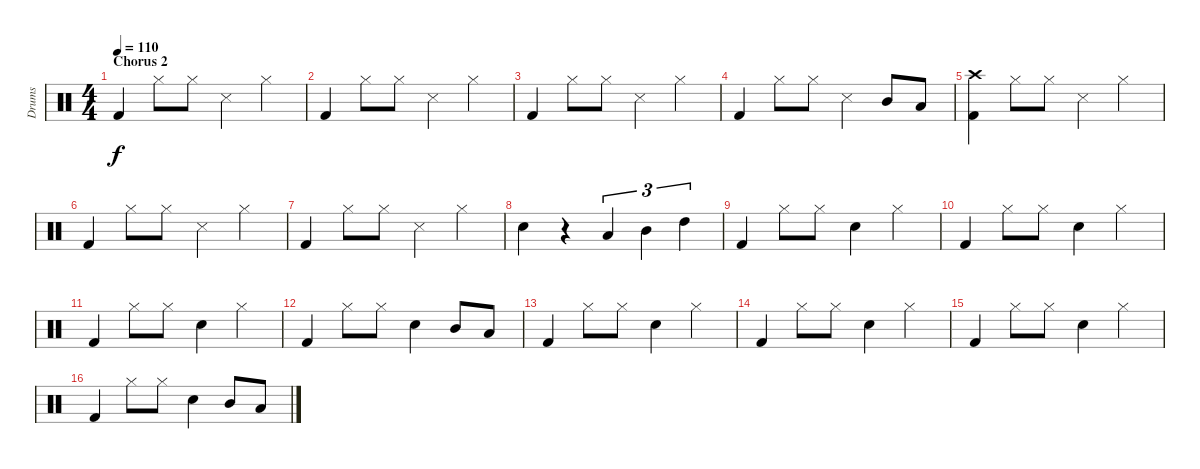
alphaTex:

\track ("Drums" "Drums") {instrument percussion}
\staff {score}
\articulation defaults
\ts (4 4)
\section ("" "Chorus 2")
\tempo 110
\clef neutral
\ks c "Kick (hit) 2".4{dy f} "Hi-Hat (closed)".8 "Hi-Hat (closed)".8 "Snare (side stick) 3".4 "Hi-Hat (closed)".4
|
"Kick (hit) 2".4 "Hi-Hat (closed)".8 "Hi-Hat (closed)".8 "Snare (side stick) 3".4 "Hi-Hat (closed)".4 |
"Kick (hit) 2".4 "Hi-Hat (closed)".8 "Hi-Hat (closed)".8 "Snare (side stick) 3".4 "Hi-Hat (closed)".4 |
"Kick (hit) 2".4 "Hi-Hat (closed)".8 "Hi-Hat (closed)".8 "Snare (side stick) 3".4 "Mid Tom (hit)".8 "Low Tom (hit)".8 |
("Kick (hit) 2" "Crash high (hit)").4 "Hi-Hat (closed)".8 "Hi-Hat (closed)".8 "Snare (side stick) 3".4 "Hi-Hat (closed)".4 |
"Kick (hit) 2".4 "Hi-Hat (closed)".8 "Hi-Hat (closed)".8 "Snare (side stick) 3".4 "Hi-Hat (closed)".4 |
"Kick (hit) 2".4 "Hi-Hat (closed)".8 "Hi-Hat (closed)".8 "Snare (side stick) 3".4 "Hi-Hat (closed)".4 |
"Snare (hit) 2".4 r.4 "Low Tom (hit)".4{tu (3 2)} "Mid Tom (hit)".4{tu (3 2)} "High Tom (hit)".4{tu (3 2)} |
"Kick (hit) 2".4 "Hi-Hat (closed)".8 "Hi-Hat (closed)".8 "Snare (hit) 2".4 "Hi-Hat (closed)".4 |
"Kick (hit) 2".4 "Hi-Hat (closed)".8 "Hi-Hat (closed)".8 "Snare (hit) 2".4 "Hi-Hat (closed)".4 |
"Kick (hit) 2".4 "Hi-Hat (closed)".8 "Hi-Hat (closed)".8 "Snare (hit) 2".4 "Hi-Hat (closed)".4 |
"Kick (hit) 2".4 "Hi-Hat (closed)".8 "Hi-Hat (closed)".8 "Snare (hit) 2".4 "Mid Tom (hit)".8 "Low Tom (hit)".8 |
"Kick (hit) 2".4 "Hi-Hat (closed)".8 "Hi-Hat (closed)".8 "Snare (hit) 2".4 "Hi-Hat (closed)".4 |
"Kick (hit) 2".4 "Hi-Hat (closed)".8 "Hi-Hat (closed)".8 "Snare (hit) 2".4 "Hi-Hat (closed)".4 |
"Kick (hit) 2".4 "Hi-Hat (closed)".8 "Hi-Hat (closed)".8 "Snare (hit) 2".4 "Hi-Hat (closed)".4 |
"Kick (hit) 2".4 "Hi-Hat (closed)".8 "Hi-Hat (closed)".8 "Snare (hit) 2".4 "Mid Tom (hit)".8 "Low Tom (hit)".8
